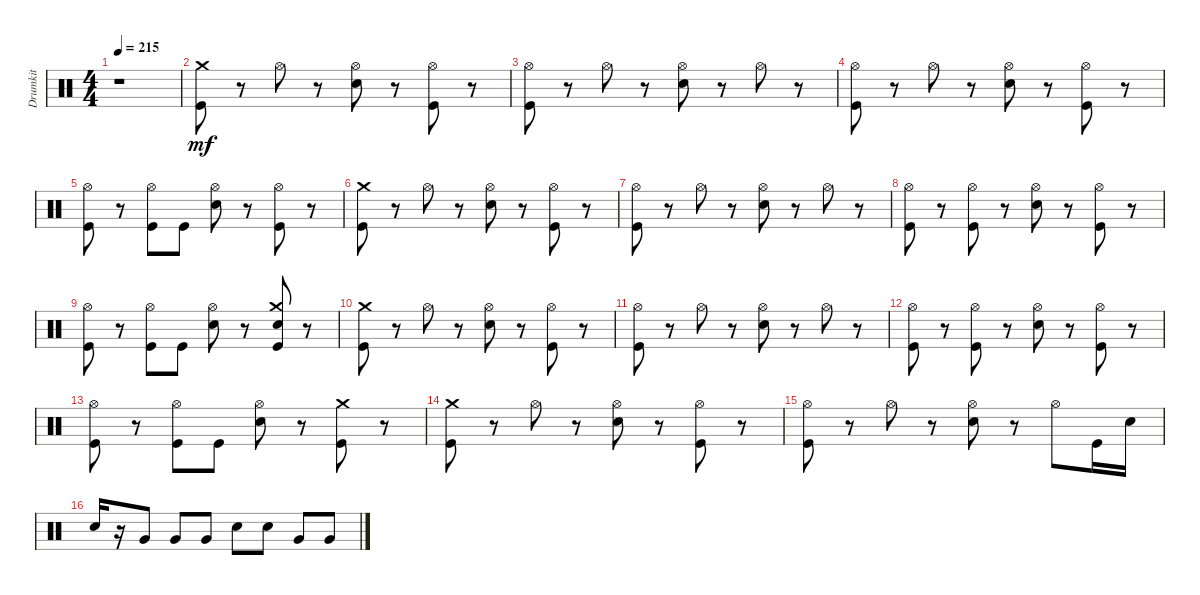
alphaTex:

\track ("Drumkit" "Drumkit") {instrument percussion}
\staff {score}
\articulation defaults
\ts (4 4)
\tempo 215
\clef neutral
\ks c
r.1{dy mf} |
("Kick (hit)" "Crash medium (hit)").8 r.8 "Hi-Hat (open)".8 r.8 ("Snare (hit) 2" "Hi-Hat (open)").8 r.8 ("Kick (hit)" "Hi-Hat (open)").8 r.8 |
("Kick (hit)" "Hi-Hat (open)").8 r.8 "Hi-Hat (open)".8 r.8 ("Snare (hit) 2" "Hi-Hat (open)").8 r.8 "Hi-Hat (open)".8 r.8 |
("Kick (hit)" "Hi-Hat (open)").8 r.8 "Hi-Hat (open)".8 r.8 ("Snare (hit) 2" "Hi-Hat (open)").8 r.8 ("Kick (hit)" "Hi-Hat (open)").8 r.8 |
("Kick (hit)" "Hi-Hat (open)").8 r.8 ("Kick (hit)" "Hi-Hat (open)").8 "Kick (hit)".8 ("Snare (hit) 2" "Hi-Hat (open)").8 r.8 ("Kick (hit)" "Hi-Hat (open)").8 r.8 |
("Kick (hit)" "Crash medium (hit)").8 r.8 "Hi-Hat (open)".8 r.8 ("Snare (hit) 2" "Hi-Hat (open)").8 r.8 ("Kick (hit)" "Hi-Hat (open)").8 r.8 |
("Kick (hit)" "Hi-Hat (open)").8 r.8 "Hi-Hat (open)".8 r.8 ("Snare (hit) 2" "Hi-Hat (open)").8 r.8 "Hi-Hat (open)".8 r.8 |
("Kick (hit)" "Hi-Hat (open)").8 r.8 ("Hi-Hat (open)" "Kick (hit)").8 r.8 ("Snare (hit) 2" "Hi-Hat (open)").8 r.8 ("Kick (hit)" "Hi-Hat (open)").8 r.8 |
("Kick (hit)" "Hi-Hat (open)").8 r.8 ("Kick (hit)" "Hi-Hat (open)").8 "Kick (hit)".8 ("Snare (hit) 2" "Hi-Hat (open)").8 r.8 ("Kick (hit)" "Snare (hit) 2" "Crash medium (hit)").8 r.8 |
("Kick (hit)" "Crash medium (hit)").8 r.8 "Hi-Hat (open)".8 r.8 ("Snare (hit) 2" "Hi-Hat (open)").8 r.8 ("Kick (hit)" "Hi-Hat (open)").8 r.8 |
("Kick (hit)" "Hi-Hat (open)").8 r.8 "Hi-Hat (open)".8 r.8 ("Snare (hit) 2" "Hi-Hat (open)").8 r.8 "Hi-Hat (open)".8 r.8 |
("Kick (hit)" "Hi-Hat (open)").8 r.8 ("Hi-Hat (open)" "Kick (hit)").8 r.8 ("Snare (hit) 2" "Hi-Hat (open)").8 r.8 ("Kick (hit)" "Hi-Hat (open)").8 r.8 |
("Kick (hit)" "Hi-Hat (open)").8 r.8 ("Kick (hit)" "Hi-Hat (open)").8 "Kick (hit)".8 ("Snare (hit) 2" "Hi-Hat (open)").8 r.8 ("Kick (hit)" "Crash medium (hit)").8 r.8 |
("Kick (hit)" "Crash medium (hit)").8 r.8 "Hi-Hat (open)".8 r.8 ("Snare (hit) 2" "Hi-Hat (open)").8 r.8 ("Kick (hit)" "Hi-Hat (open)").8 r.8 |
("Kick (hit)" "Hi-Hat (open)").8 r.8 "Hi-Hat (open)".8 r.8 ("Snare (hit) 2" "Hi-Hat (open)").8 r.8 "Hi-Hat (open)".8 "Kick (hit)".16 "Snare (hit) 2".16 |
"Snare (hit) 2".16 r.16 "Very Low Tom (hit)".8 "Very Low Tom (hit)".8 "Very Low Tom (hit)".8 "Snare (hit) 2".8 "Snare (hit) 2".8 "Very Low Tom (hit)".8 "Very Low Tom (hit)".8
